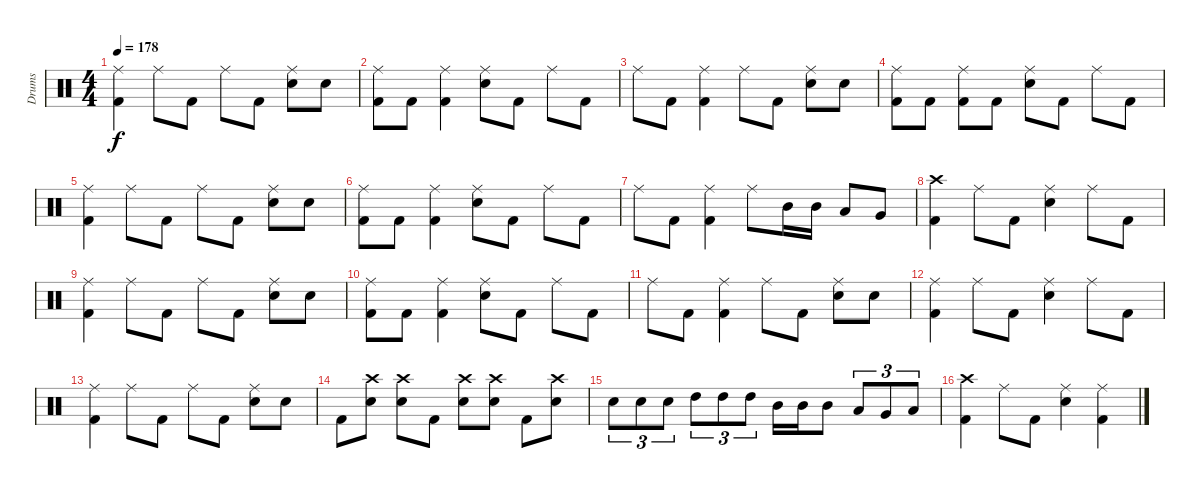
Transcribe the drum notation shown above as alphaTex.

\track ("Drums" "Drums") {mute instrument percussion}
\staff {score}
\articulation defaults
\ts (4 4)
\tempo 178
\clef neutral
\ks c
("Ride (middle)" "Kick (hit) 2").4{dy f} "Ride (middle)".8 "Kick (hit) 2".8 "Ride (middle)".8 "Kick (hit) 2".8 ("Ride (middle)" "Electric Snare (hit)").8 "Electric Snare (hit)".8 |
("Ride (middle)" "Kick (hit) 2").8 "Kick (hit) 2".8 ("Ride (middle)" "Kick (hit) 2").4 ("Ride (middle)" "Electric Snare (hit)").8 "Kick (hit) 2".8 "Ride (middle)".8 "Kick (hit) 2".8 |
"Ride (middle)".8 "Kick (hit) 2".8 ("Ride (middle)" "Kick (hit) 2").4 "Ride (middle)".8 "Kick (hit) 2".8 ("Ride (middle)" "Electric Snare (hit)").8 "Electric Snare (hit)".8 |
("Ride (middle)" "Kick (hit) 2").8 "Kick (hit) 2".8 ("Ride (middle)" "Kick (hit) 2").8 "Kick (hit) 2".8 ("Ride (middle)" "Electric Snare (hit)").8 "Kick (hit) 2".8 "Ride (middle)".8 "Kick (hit) 2".8 |
("Ride (middle)" "Kick (hit) 2").4 "Ride (middle)".8 "Kick (hit) 2".8 "Ride (middle)".8 "Kick (hit) 2".8 ("Ride (middle)" "Electric Snare (hit)").8 "Electric Snare (hit)".8 |
("Ride (middle)" "Kick (hit) 2").8 "Kick (hit) 2".8 ("Ride (middle)" "Kick (hit) 2").4 ("Ride (middle)" "Electric Snare (hit)").8 "Kick (hit) 2".8 "Ride (middle)".8 "Kick (hit) 2".8 |
"Ride (middle)".8 "Kick (hit) 2".8 ("Ride (middle)" "Kick (hit) 2").4 "Ride (middle)".8 "Mid Tom (hit)".16 "Mid Tom (hit)".16 "Low Tom (hit)".8 "Very Low Tom (hit)".8 |
("Crash high (hit)" "Kick (hit) 2").4 "Ride (middle)".8 "Kick (hit) 2".8 ("Ride (middle)" "Electric Snare (hit)").4 "Ride (middle)".8 "Kick (hit) 2".8 |
("Ride (middle)" "Kick (hit) 2").4 "Ride (middle)".8 "Kick (hit) 2".8 "Ride (middle)".8 "Kick (hit) 2".8 ("Ride (middle)" "Electric Snare (hit)").8 "Electric Snare (hit)".8 |
("Ride (middle)" "Kick (hit) 2").8 "Kick (hit) 2".8 ("Ride (middle)" "Kick (hit) 2").4 ("Ride (middle)" "Electric Snare (hit)").8 "Kick (hit) 2".8 "Ride (middle)".8 "Kick (hit) 2".8 |
"Ride (middle)".8 "Kick (hit) 2".8 ("Ride (middle)" "Kick (hit) 2").4 "Ride (middle)".8 "Kick (hit) 2".8 ("Ride (middle)" "Electric Snare (hit)").8 "Electric Snare (hit)".8 |
("Ride (middle)" "Kick (hit) 2").4 "Ride (middle)".8 "Kick (hit) 2".8 ("Ride (middle)" "Electric Snare (hit)").4 "Ride (middle)".8 "Kick (hit) 2".8 |
("Ride (middle)" "Kick (hit) 2").4 "Ride (middle)".8 "Kick (hit) 2".8 "Ride (middle)".8 "Kick (hit) 2".8 ("Ride (middle)" "Electric Snare (hit)").8 "Electric Snare (hit)".8 |
"Kick (hit) 2".8 ("Crash high (hit)" "Electric Snare (hit)").8 ("Crash high (hit)" "Electric Snare (hit)").8 "Kick (hit) 2".8 ("Crash high (hit)" "Electric Snare (hit)").8 ("Crash high (hit)" "Electric Snare (hit)").8 "Kick (hit) 2".8 ("Crash high (hit)" "Electric Snare (hit)").8 |
"Electric Snare (hit)".8{tu (3 2)} "Electric Snare (hit)".8{tu (3 2)} "Electric Snare (hit)".8{tu (3 2)} "High Tom (hit)".8{tu (3 2)} "High Tom (hit)".8{tu (3 2)} "High Tom (hit)".8{tu (3 2)} "Mid Tom (hit)".16 "Mid Tom (hit)".16 "Mid Tom (hit)".8 "Low Tom (hit)".8{tu (3 2)} "Very Low Tom (hit)".8{tu (3 2)} "Low Floor Tom (hit)".8{tu (3 2)} |
("Crash high (hit)" "Kick (hit) 2").4 "Ride (middle)".8 "Kick (hit) 2".8 ("Ride (middle)" "Electric Snare (hit)").4 ("Ride (middle)" "Kick (hit) 2").4
